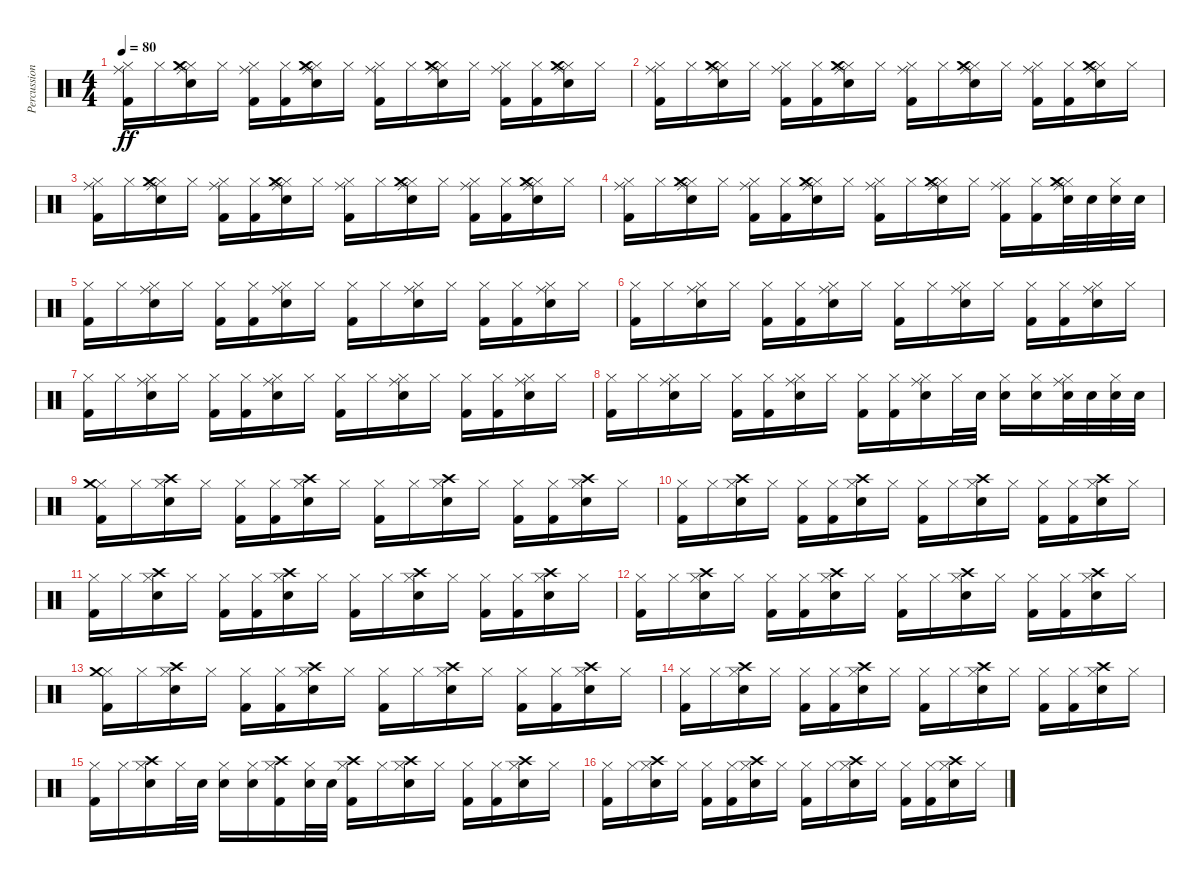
\track ("Percussion" "Percussion") {instrument percussion}
\staff {score}
\articulation defaults
\ts (4 4)
\tempo 80
\clef neutral
\ks c
("Kick (hit) 2" "Hi-Hat (closed)" "Ride (middle)").16{dy ff} "Hi-Hat (closed)".16 ("Snare (hit) 2" "Hi-Hat (closed)" "Ride (middle)" "Crash medium (hit)").16 "Hi-Hat (closed)".16 ("Kick (hit) 2" "Hi-Hat (closed)" "Ride (middle)").16 ("Kick (hit) 2" "Hi-Hat (closed)").16 ("Snare (hit) 2" "Hi-Hat (closed)" "Ride (middle)" "Crash medium (hit)").16 "Hi-Hat (closed)".16 ("Kick (hit) 2" "Hi-Hat (closed)" "Ride (middle)").16 "Hi-Hat (closed)".16 ("Snare (hit) 2" "Hi-Hat (closed)" "Ride (middle)" "Crash medium (hit)").16 "Hi-Hat (closed)".16 ("Kick (hit) 2" "Hi-Hat (closed)" "Ride (middle)").16 ("Kick (hit) 2" "Hi-Hat (closed)").16 ("Snare (hit) 2" "Hi-Hat (closed)" "Ride (middle)" "Crash medium (hit)").16 "Hi-Hat (closed)".16 |
("Kick (hit) 2" "Hi-Hat (closed)" "Ride (middle)").16 "Hi-Hat (closed)".16 ("Snare (hit) 2" "Hi-Hat (closed)" "Ride (middle)" "Crash medium (hit)").16 "Hi-Hat (closed)".16 ("Kick (hit) 2" "Hi-Hat (closed)" "Ride (middle)").16 ("Kick (hit) 2" "Hi-Hat (closed)").16 ("Snare (hit) 2" "Hi-Hat (closed)" "Ride (middle)" "Crash medium (hit)").16 "Hi-Hat (closed)".16 ("Kick (hit) 2" "Hi-Hat (closed)" "Ride (middle)").16 "Hi-Hat (closed)".16 ("Snare (hit) 2" "Hi-Hat (closed)" "Ride (middle)" "Crash medium (hit)").16 "Hi-Hat (closed)".16 ("Kick (hit) 2" "Hi-Hat (closed)" "Ride (middle)").16 ("Kick (hit) 2" "Hi-Hat (closed)").16 ("Snare (hit) 2" "Hi-Hat (closed)" "Ride (middle)" "Crash medium (hit)").16 "Hi-Hat (closed)".16 |
("Kick (hit) 2" "Hi-Hat (closed)" "Ride (middle)").16 "Hi-Hat (closed)".16 ("Snare (hit) 2" "Hi-Hat (closed)" "Ride (middle)" "Crash medium (hit)").16 "Hi-Hat (closed)".16 ("Kick (hit) 2" "Hi-Hat (closed)" "Ride (middle)").16 ("Kick (hit) 2" "Hi-Hat (closed)").16 ("Snare (hit) 2" "Hi-Hat (closed)" "Ride (middle)" "Crash medium (hit)").16 "Hi-Hat (closed)".16 ("Kick (hit) 2" "Hi-Hat (closed)" "Ride (middle)").16 "Hi-Hat (closed)".16 ("Snare (hit) 2" "Hi-Hat (closed)" "Ride (middle)" "Crash medium (hit)").16 "Hi-Hat (closed)".16 ("Kick (hit) 2" "Hi-Hat (closed)" "Ride (middle)").16 ("Kick (hit) 2" "Hi-Hat (closed)").16 ("Snare (hit) 2" "Hi-Hat (closed)" "Ride (middle)" "Crash medium (hit)").16 "Hi-Hat (closed)".16 |
("Kick (hit) 2" "Hi-Hat (closed)" "Ride (middle)").16 "Hi-Hat (closed)".16 ("Snare (hit) 2" "Hi-Hat (closed)" "Ride (middle)" "Crash medium (hit)").16 "Hi-Hat (closed)".16 ("Kick (hit) 2" "Hi-Hat (closed)" "Ride (middle)").16 ("Kick (hit) 2" "Hi-Hat (closed)").16 ("Snare (hit) 2" "Hi-Hat (closed)" "Ride (middle)" "Crash medium (hit)").16 "Hi-Hat (closed)".16 ("Kick (hit) 2" "Hi-Hat (closed)" "Ride (middle)").16 "Hi-Hat (closed)".16 ("Snare (hit) 2" "Hi-Hat (closed)" "Ride (middle)" "Crash medium (hit)").16 "Hi-Hat (closed)".16 ("Kick (hit) 2" "Hi-Hat (closed)" "Ride (middle)").16 ("Kick (hit) 2" "Hi-Hat (closed)").16 ("Snare (hit) 2" "Hi-Hat (closed)" "Ride (middle)" "Crash medium (hit)").32 "Snare (hit) 2".32 ("Snare (hit) 2" "Hi-Hat (closed)").32 "Snare (hit) 2".32 |
("Kick (hit) 2" "Hi-Hat (closed)").16 "Hi-Hat (closed)".16 ("Snare (hit) 2" "Hi-Hat (closed)" "Ride (middle)").16 "Hi-Hat (closed)".16 ("Kick (hit) 2" "Hi-Hat (closed)").16 ("Kick (hit) 2" "Hi-Hat (closed)").16 ("Snare (hit) 2" "Hi-Hat (closed)" "Ride (middle)").16 "Hi-Hat (closed)".16 ("Kick (hit) 2" "Hi-Hat (closed)").16 "Hi-Hat (closed)".16 ("Snare (hit) 2" "Hi-Hat (closed)" "Ride (middle)").16 "Hi-Hat (closed)".16 ("Kick (hit) 2" "Hi-Hat (closed)").16 ("Kick (hit) 2" "Hi-Hat (closed)").16 ("Snare (hit) 2" "Hi-Hat (closed)" "Ride (middle)").16 "Hi-Hat (closed)".16 |
("Kick (hit) 2" "Hi-Hat (closed)").16 "Hi-Hat (closed)".16 ("Snare (hit) 2" "Hi-Hat (closed)" "Ride (middle)").16 "Hi-Hat (closed)".16 ("Kick (hit) 2" "Hi-Hat (closed)").16 ("Kick (hit) 2" "Hi-Hat (closed)").16 ("Snare (hit) 2" "Hi-Hat (closed)" "Ride (middle)").16 "Hi-Hat (closed)".16 ("Kick (hit) 2" "Hi-Hat (closed)").16 "Hi-Hat (closed)".16 ("Snare (hit) 2" "Hi-Hat (closed)" "Ride (middle)").16 "Hi-Hat (closed)".16 ("Kick (hit) 2" "Hi-Hat (closed)").16 ("Kick (hit) 2" "Hi-Hat (closed)").16 ("Snare (hit) 2" "Hi-Hat (closed)" "Ride (middle)").16 "Hi-Hat (closed)".16 |
("Kick (hit) 2" "Hi-Hat (closed)").16 "Hi-Hat (closed)".16 ("Snare (hit) 2" "Hi-Hat (closed)" "Ride (middle)").16 "Hi-Hat (closed)".16 ("Kick (hit) 2" "Hi-Hat (closed)").16 ("Kick (hit) 2" "Hi-Hat (closed)").16 ("Snare (hit) 2" "Hi-Hat (closed)" "Ride (middle)").16 "Hi-Hat (closed)".16 ("Kick (hit) 2" "Hi-Hat (closed)").16 "Hi-Hat (closed)".16 ("Snare (hit) 2" "Hi-Hat (closed)" "Ride (middle)").16 "Hi-Hat (closed)".16 ("Kick (hit) 2" "Hi-Hat (closed)").16 ("Kick (hit) 2" "Hi-Hat (closed)").16 ("Snare (hit) 2" "Hi-Hat (closed)" "Ride (middle)").16 "Hi-Hat (closed)".16 |
("Kick (hit) 2" "Hi-Hat (closed)").16 "Hi-Hat (closed)".16 ("Snare (hit) 2" "Hi-Hat (closed)" "Ride (middle)").16 "Hi-Hat (closed)".16 ("Kick (hit) 2" "Hi-Hat (closed)").16 ("Kick (hit) 2" "Hi-Hat (closed)").16 ("Snare (hit) 2" "Hi-Hat (closed)" "Ride (middle)").16 "Hi-Hat (closed)".16 ("Kick (hit) 2" "Hi-Hat (closed)").16 ("Kick (hit) 2" "Hi-Hat (closed)").16 ("Snare (hit) 2" "Hi-Hat (closed)" "Ride (middle)").16 "Hi-Hat (closed)".32 "Snare (hit) 2".32 ("Snare (hit) 2" "Hi-Hat (closed)").16 ("Snare (hit) 2" "Hi-Hat (closed)").16 ("Snare (hit) 2" "Hi-Hat (closed)" "Ride (middle)").32 "Snare (hit) 2".32 ("Snare (hit) 2" "Hi-Hat (closed)").32 "Snare (hit) 2".32 |
("Kick (hit) 2" "Hi-Hat (closed)" "Crash medium (hit)").16 "Hi-Hat (closed)".16 ("Snare (hit) 2" "Hi-Hat (closed)" "Crash high (hit)").16 "Hi-Hat (closed)".16 ("Kick (hit) 2" "Hi-Hat (closed)").16 ("Kick (hit) 2" "Hi-Hat (closed)").16 ("Snare (hit) 2" "Hi-Hat (closed)" "Crash high (hit)").16 "Hi-Hat (closed)".16 ("Kick (hit) 2" "Hi-Hat (closed)").16 "Hi-Hat (closed)".16 ("Snare (hit) 2" "Hi-Hat (closed)" "Crash high (hit)").16 "Hi-Hat (closed)".16 ("Kick (hit) 2" "Hi-Hat (closed)").16 ("Kick (hit) 2" "Hi-Hat (closed)").16 ("Snare (hit) 2" "Hi-Hat (closed)" "Crash high (hit)").16 "Hi-Hat (closed)".16 |
("Kick (hit) 2" "Hi-Hat (closed)").16 "Hi-Hat (closed)".16 ("Snare (hit) 2" "Hi-Hat (closed)" "Crash high (hit)").16 "Hi-Hat (closed)".16 ("Kick (hit) 2" "Hi-Hat (closed)").16 ("Kick (hit) 2" "Hi-Hat (closed)").16 ("Snare (hit) 2" "Hi-Hat (closed)" "Crash high (hit)").16 "Hi-Hat (closed)".16 ("Kick (hit) 2" "Hi-Hat (closed)").16 "Hi-Hat (closed)".16 ("Snare (hit) 2" "Hi-Hat (closed)" "Crash high (hit)").16 "Hi-Hat (closed)".16 ("Kick (hit) 2" "Hi-Hat (closed)").16 ("Kick (hit) 2" "Hi-Hat (closed)").16 ("Snare (hit) 2" "Hi-Hat (closed)" "Crash high (hit)").16 "Hi-Hat (closed)".16 |
("Kick (hit) 2" "Hi-Hat (closed)").16 "Hi-Hat (closed)".16 ("Snare (hit) 2" "Hi-Hat (closed)" "Crash high (hit)").16 "Hi-Hat (closed)".16 ("Kick (hit) 2" "Hi-Hat (closed)").16 ("Kick (hit) 2" "Hi-Hat (closed)").16 ("Snare (hit) 2" "Hi-Hat (closed)" "Crash high (hit)").16 "Hi-Hat (closed)".16 ("Kick (hit) 2" "Hi-Hat (closed)").16 "Hi-Hat (closed)".16 ("Snare (hit) 2" "Hi-Hat (closed)" "Crash high (hit)").16 "Hi-Hat (closed)".16 ("Kick (hit) 2" "Hi-Hat (closed)").16 ("Kick (hit) 2" "Hi-Hat (closed)").16 ("Snare (hit) 2" "Hi-Hat (closed)" "Crash high (hit)").16 "Hi-Hat (closed)".16 |
("Kick (hit) 2" "Hi-Hat (closed)").16 "Hi-Hat (closed)".16 ("Snare (hit) 2" "Hi-Hat (closed)" "Crash high (hit)").16 "Hi-Hat (closed)".16 ("Kick (hit) 2" "Hi-Hat (closed)").16 ("Kick (hit) 2" "Hi-Hat (closed)").16 ("Snare (hit) 2" "Hi-Hat (closed)" "Crash high (hit)").16 "Hi-Hat (closed)".16 ("Kick (hit) 2" "Hi-Hat (closed)").16 "Hi-Hat (closed)".16 ("Snare (hit) 2" "Hi-Hat (closed)" "Crash high (hit)").16 "Hi-Hat (closed)".16 ("Kick (hit) 2" "Hi-Hat (closed)").16 ("Kick (hit) 2" "Hi-Hat (closed)").16 ("Snare (hit) 2" "Hi-Hat (closed)" "Crash high (hit)").16 "Hi-Hat (closed)".16 |
("Kick (hit) 2" "Hi-Hat (closed)" "Crash medium (hit)").16 "Hi-Hat (closed)".16 ("Snare (hit) 2" "Hi-Hat (closed)" "Crash high (hit)").16 "Hi-Hat (closed)".16 ("Kick (hit) 2" "Hi-Hat (closed)").16 ("Kick (hit) 2" "Hi-Hat (closed)").16 ("Snare (hit) 2" "Hi-Hat (closed)" "Crash high (hit)").16 "Hi-Hat (closed)".16 ("Kick (hit) 2" "Hi-Hat (closed)").16 "Hi-Hat (closed)".16 ("Snare (hit) 2" "Hi-Hat (closed)" "Crash high (hit)").16 "Hi-Hat (closed)".16 ("Kick (hit) 2" "Hi-Hat (closed)").16 ("Kick (hit) 2" "Hi-Hat (closed)").16 ("Snare (hit) 2" "Hi-Hat (closed)" "Crash high (hit)").16 "Hi-Hat (closed)".16 |
("Kick (hit) 2" "Hi-Hat (closed)").16 "Hi-Hat (closed)".16 ("Snare (hit) 2" "Hi-Hat (closed)" "Crash high (hit)").16 "Hi-Hat (closed)".16 ("Kick (hit) 2" "Hi-Hat (closed)").16 ("Kick (hit) 2" "Hi-Hat (closed)").16 ("Snare (hit) 2" "Hi-Hat (closed)" "Crash high (hit)").16 "Hi-Hat (closed)".16 ("Kick (hit) 2" "Hi-Hat (closed)").16 "Hi-Hat (closed)".16 ("Snare (hit) 2" "Hi-Hat (closed)" "Crash high (hit)").16 "Hi-Hat (closed)".16 ("Kick (hit) 2" "Hi-Hat (closed)").16 ("Kick (hit) 2" "Hi-Hat (closed)").16 ("Snare (hit) 2" "Hi-Hat (closed)" "Crash high (hit)").16 "Hi-Hat (closed)".16 |
("Kick (hit) 2" "Hi-Hat (closed)").16 "Hi-Hat (closed)".16 ("Snare (hit) 2" "Hi-Hat (closed)" "Crash high (hit)").16 "Hi-Hat (closed)".32 "Snare (hit) 2".32 ("Snare (hit) 2" "Hi-Hat (closed)").16 ("Snare (hit) 2" "Hi-Hat (closed)").16 ("Kick (hit) 2" "Hi-Hat (closed)" "Crash high (hit)").16 ("Snare (hit) 2" "Hi-Hat (closed)").32 "Snare (hit) 2".32 ("Kick (hit) 2" "Hi-Hat (closed)" "Crash high (hit)").16 "Hi-Hat (closed)".16 ("Snare (hit) 2" "Hi-Hat (closed)" "Crash high (hit)").16 "Hi-Hat (closed)".16 ("Kick (hit) 2" "Hi-Hat (closed)").16 ("Kick (hit) 2" "Hi-Hat (closed)").16 ("Snare (hit) 2" "Hi-Hat (closed)" "Crash high (hit)").16 "Hi-Hat (closed)".16 |
("Kick (hit) 2" "Hi-Hat (closed)").16 "Hi-Hat (closed)".16 ("Snare (hit) 2" "Hi-Hat (closed)" "Crash high (hit)").16 "Hi-Hat (closed)".16 ("Kick (hit) 2" "Hi-Hat (closed)").16 ("Kick (hit) 2" "Hi-Hat (closed)").16 ("Snare (hit) 2" "Hi-Hat (closed)" "Crash high (hit)").16 "Hi-Hat (closed)".16 ("Kick (hit) 2" "Hi-Hat (closed)").16 "Hi-Hat (closed)".16 ("Snare (hit) 2" "Hi-Hat (closed)" "Crash high (hit)").16 "Hi-Hat (closed)".16 ("Kick (hit) 2" "Hi-Hat (closed)").16 ("Kick (hit) 2" "Hi-Hat (closed)").16 ("Snare (hit) 2" "Hi-Hat (closed)" "Crash high (hit)").16 "Hi-Hat (closed)".16
